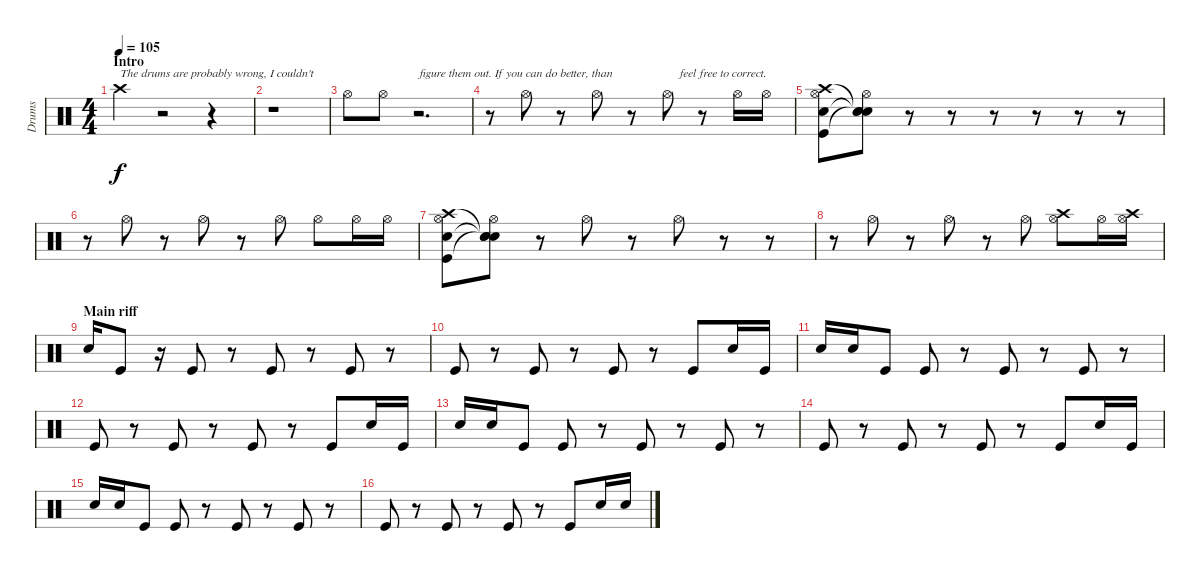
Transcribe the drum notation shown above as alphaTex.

\track ("Drums" "Drums") {instrument percussion}
\staff {score}
\articulation defaults
\ts (4 4)
\section ("" "Intro")
\tempo 105
\clef neutral
\ks c "Crash high (hit)".4{txt "The drums are probably wrong, I couldn't" dy f}
r.2 r.4 |
r.1 |
"Hi-Hat (open)".8 "Hi-Hat (open)".8 r.2{d txt "figure them out. If you can do better, than"} |
r.8 "Hi-Hat (open)".8 r.8 "Hi-Hat (open)".8 r.8 "Hi-Hat (open)".8{txt "    feel free to correct."} r.8 "Hi-Hat (open)".16 "Hi-Hat (open)".16 |
("Hi-Hat (open)" "Crash high (hit)" "Snare (hit) 2" "Kick (hit)").8 ("Hi-Hat (open)" "Snare (hit)"{t} "Snare (hit)"{t} "Snare (hit)"{t}).8 r.8 r.8 r.8 r.8 r.8 r.8 |
r.8 "Hi-Hat (open)".8 r.8 "Hi-Hat (open)".8 r.8 "Hi-Hat (open)".8 "Hi-Hat (open)".8 "Hi-Hat (open)".16 "Hi-Hat (open)".16 |
("Hi-Hat (open)" "Crash high (hit)" "Snare (hit) 2" "Kick (hit)").8 ("Hi-Hat (open)" "Snare (hit)"{t} "Snare (hit)"{t} "Snare (hit)"{t}).8 r.8 "Hi-Hat (open)".8 r.8 "Hi-Hat (open)".8 r.8 r.8 |
r.8 "Hi-Hat (open)".8 r.8 "Hi-Hat (open)".8 r.8 "Hi-Hat (open)".8 ("Hi-Hat (open)" "Crash high (hit)").8 "Hi-Hat (open)".16 ("Hi-Hat (open)" "Crash high (hit)").16 |
\section ("" "Main riff")
"Snare (hit) 2".16 "Kick (hit)".8 r.16 "Kick (hit)".8 r.8 "Kick (hit)".8 r.8 "Kick (hit)".8 r.8 |
"Kick (hit)".8 r.8 "Kick (hit)".8 r.8 "Kick (hit)".8 r.8 "Kick (hit)".8 "Snare (hit) 2".16 "Kick (hit)".16 |
"Snare (hit) 2".16 "Snare (hit) 2".16 "Kick (hit)".8 "Kick (hit)".8 r.8 "Kick (hit)".8 r.8 "Kick (hit)".8 r.8 |
"Kick (hit)".8 r.8 "Kick (hit)".8 r.8 "Kick (hit)".8 r.8 "Kick (hit)".8 "Snare (hit) 2".16 "Kick (hit)".16 |
"Snare (hit) 2".16 "Snare (hit) 2".16 "Kick (hit)".8 "Kick (hit)".8 r.8 "Kick (hit)".8 r.8 "Kick (hit)".8 r.8 |
"Kick (hit)".8 r.8 "Kick (hit)".8 r.8 "Kick (hit)".8 r.8 "Kick (hit)".8 "Snare (hit) 2".16 "Kick (hit)".16 |
"Snare (hit) 2".16 "Snare (hit) 2".16 "Kick (hit)".8 "Kick (hit)".8 r.8 "Kick (hit)".8 r.8 "Kick (hit)".8 r.8 |
"Kick (hit)".8 r.8 "Kick (hit)".8 r.8 "Kick (hit)".8 r.8 "Kick (hit)".8 "Snare (hit) 2".16 "Snare (hit) 2".16
